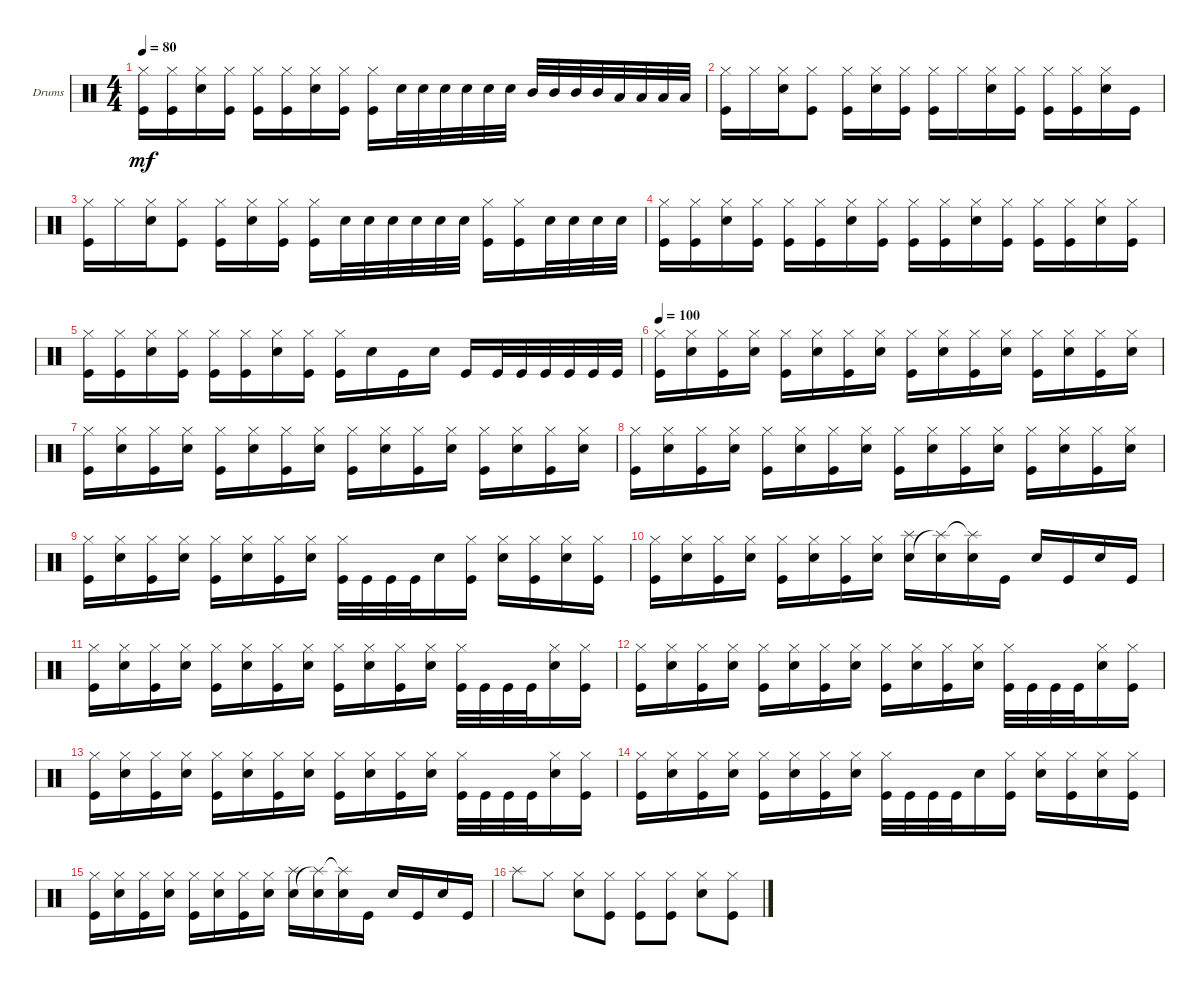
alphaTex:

\defaultSystemsLayout 4
\bracketExtendMode groupsimilarinstruments
\firstSystemTrackNameOrientation horizontal
\otherSystemsTrackNameOrientation horizontal
\track ("Drumkit" "Drums") {instrument percussion}
\staff {score}
\articulation defaults
\ts (4 4)
\tempo 80
\clef neutral
\ks c
("Kick (hit)" "Hi-Hat (closed)").16{dy mf} ("Kick (hit)" "Hi-Hat (closed)").16 ("Snare (hit) 2" "Hi-Hat (closed)").16 ("Kick (hit)" "Hi-Hat (closed)").16 ("Kick (hit)" "Hi-Hat (closed)").16 ("Kick (hit)" "Hi-Hat (closed)").16 ("Snare (hit) 2" "Hi-Hat (closed)").16 ("Kick (hit)" "Hi-Hat (closed)").16 ("Kick (hit)" "Hi-Hat (closed)").16 "Snare (hit) 2".32 "Snare (hit) 2".32 "Snare (hit) 2".32 "Snare (hit) 2".32 "Snare (hit) 2".32 "Snare (hit) 2".32 "Mid Tom (hit)".32 "Mid Tom (hit)".32 "Mid Tom (hit)".32 "Mid Tom (hit)".32 "Low Tom (hit)".32 "Low Tom (hit)".32 "Low Tom (hit)".32 "Low Tom (hit)".32 |
("Hi-Hat (closed)" "Kick (hit)").16 "Hi-Hat (closed)".16 ("Snare (hit) 2" "Hi-Hat (closed)").16 ("Kick (hit)" "Hi-Hat (closed)").8 ("Kick (hit)" "Hi-Hat (closed)").16 ("Snare (hit) 2" "Hi-Hat (closed)").16 ("Kick (hit)" "Hi-Hat (closed)").16 ("Hi-Hat (closed)" "Kick (hit)").16 "Hi-Hat (closed)".16 ("Snare (hit) 2" "Hi-Hat (closed)").16 ("Kick (hit)" "Hi-Hat (closed)").16 ("Kick (hit)" "Hi-Hat (closed)").16 ("Hi-Hat (closed)" "Kick (hit)").16 ("Hi-Hat (closed)" "Snare (hit) 2").16 "Kick (hit)".16 |
("Hi-Hat (closed)" "Kick (hit)").16 "Hi-Hat (closed)".16 ("Snare (hit) 2" "Hi-Hat (closed)").16 ("Kick (hit)" "Hi-Hat (closed)").8 ("Kick (hit)" "Hi-Hat (closed)").16 ("Snare (hit) 2" "Hi-Hat (closed)").16 ("Kick (hit)" "Hi-Hat (closed)").16 ("Hi-Hat (closed)" "Kick (hit)").16 "Snare (hit) 2".32 "Snare (hit) 2".32 "Snare (hit) 2".32 "Snare (hit) 2".32 "Snare (hit) 2".32 "Snare (hit) 2".32 ("Kick (hit)" "Hi-Hat (closed)").16 ("Kick (hit)" "Hi-Hat (closed)").16 "Snare (hit) 2".32 "Snare (hit) 2".32 "Snare (hit) 2".32 "Snare (hit) 2".32 |
("Kick (hit)" "Hi-Hat (closed)").16 ("Kick (hit)" "Hi-Hat (closed)").16 ("Snare (hit) 2" "Hi-Hat (closed)").16 ("Kick (hit)" "Hi-Hat (closed)").16 ("Kick (hit)" "Hi-Hat (closed)").16 ("Kick (hit)" "Hi-Hat (closed)").16 ("Snare (hit) 2" "Hi-Hat (closed)").16 ("Kick (hit)" "Hi-Hat (closed)").16 ("Kick (hit)" "Hi-Hat (closed)").16 ("Kick (hit)" "Hi-Hat (closed)").16 ("Snare (hit) 2" "Hi-Hat (closed)").16 ("Kick (hit)" "Hi-Hat (closed)").16 ("Kick (hit)" "Hi-Hat (closed)").16 ("Kick (hit)" "Hi-Hat (closed)").16 ("Snare (hit) 2" "Hi-Hat (closed)").16 ("Kick (hit)" "Hi-Hat (closed)").16 |
("Kick (hit)" "Hi-Hat (closed)").16 ("Kick (hit)" "Hi-Hat (closed)").16 ("Snare (hit) 2" "Hi-Hat (closed)").16 ("Kick (hit)" "Hi-Hat (closed)").16 ("Kick (hit)" "Hi-Hat (closed)").16 ("Kick (hit)" "Hi-Hat (closed)").16 ("Snare (hit) 2" "Hi-Hat (closed)").16 ("Kick (hit)" "Hi-Hat (closed)").16 ("Kick (hit)" "Hi-Hat (closed)").16 "Snare (hit) 2".16 "Kick (hit)".16 "Snare (hit) 2".16 "Kick (hit)".16 "Kick (hit)".32 "Kick (hit)".32 "Kick (hit)".32 "Kick (hit)".32 "Kick (hit)".32 "Kick (hit)".32 |
\tempo 100
("Kick (hit)" "Hi-Hat (closed)").16 ("Snare (hit) 2" "Hi-Hat (closed)").16 ("Kick (hit)" "Hi-Hat (closed)").16 ("Snare (hit) 2" "Hi-Hat (closed)").16 ("Kick (hit)" "Hi-Hat (closed)").16 ("Snare (hit) 2" "Hi-Hat (closed)").16 ("Kick (hit)" "Hi-Hat (closed)").16 ("Snare (hit) 2" "Hi-Hat (closed)").16 ("Kick (hit)" "Hi-Hat (closed)").16 ("Snare (hit) 2" "Hi-Hat (closed)").16 ("Kick (hit)" "Hi-Hat (closed)").16 ("Snare (hit) 2" "Hi-Hat (closed)").16 ("Kick (hit)" "Hi-Hat (closed)").16 ("Snare (hit) 2" "Hi-Hat (closed)").16 ("Kick (hit)" "Hi-Hat (closed)").16 ("Snare (hit) 2" "Hi-Hat (closed)").16 |
("Kick (hit)" "Hi-Hat (closed)").16 ("Snare (hit) 2" "Hi-Hat (closed)").16 ("Kick (hit)" "Hi-Hat (closed)").16 ("Snare (hit) 2" "Hi-Hat (closed)").16 ("Kick (hit)" "Hi-Hat (closed)").16 ("Snare (hit) 2" "Hi-Hat (closed)").16 ("Kick (hit)" "Hi-Hat (closed)").16 ("Snare (hit) 2" "Hi-Hat (closed)").16 ("Kick (hit)" "Hi-Hat (closed)").16 ("Snare (hit) 2" "Hi-Hat (closed)").16 ("Kick (hit)" "Hi-Hat (closed)").16 ("Snare (hit) 2" "Hi-Hat (closed)").16 ("Kick (hit)" "Hi-Hat (closed)").16 ("Snare (hit) 2" "Hi-Hat (closed)").16 ("Kick (hit)" "Hi-Hat (closed)").16 ("Snare (hit) 2" "Hi-Hat (closed)").16 |
("Kick (hit)" "Hi-Hat (closed)").16 ("Snare (hit) 2" "Hi-Hat (closed)").16 ("Kick (hit)" "Hi-Hat (closed)").16 ("Snare (hit) 2" "Hi-Hat (closed)").16 ("Kick (hit)" "Hi-Hat (closed)").16 ("Snare (hit) 2" "Hi-Hat (closed)").16 ("Kick (hit)" "Hi-Hat (closed)").16 ("Snare (hit) 2" "Hi-Hat (closed)").16 ("Kick (hit)" "Hi-Hat (closed)").16 ("Snare (hit) 2" "Hi-Hat (closed)").16 ("Kick (hit)" "Hi-Hat (closed)").16 ("Snare (hit) 2" "Hi-Hat (closed)").16 ("Kick (hit)" "Hi-Hat (closed)").16 ("Snare (hit) 2" "Hi-Hat (closed)").16 ("Kick (hit)" "Hi-Hat (closed)").16 ("Snare (hit) 2" "Hi-Hat (closed)").16 |
("Kick (hit)" "Hi-Hat (closed)").16 ("Snare (hit) 2" "Hi-Hat (closed)").16 ("Kick (hit)" "Hi-Hat (closed)").16 ("Snare (hit) 2" "Hi-Hat (closed)").16 ("Kick (hit)" "Hi-Hat (closed)").16 ("Snare (hit) 2" "Hi-Hat (closed)").16 ("Kick (hit)" "Hi-Hat (closed)").16 ("Snare (hit) 2" "Hi-Hat (closed)").16 ("Kick (hit)" "Hi-Hat (closed)").32 "Kick (hit)".32 "Kick (hit)".32 "Kick (hit)".32 "Snare (hit) 2".16 ("Kick (hit)" "Hi-Hat (closed)").16 ("Snare (hit) 2" "Hi-Hat (closed)").16 ("Kick (hit)" "Hi-Hat (closed)").16 ("Snare (hit) 2" "Hi-Hat (closed)").16 ("Kick (hit)" "Hi-Hat (closed)").16 |
("Kick (hit)" "Hi-Hat (closed)").16 ("Snare (hit) 2" "Hi-Hat (closed)").16 ("Kick (hit)" "Hi-Hat (closed)").16 ("Snare (hit) 2" "Hi-Hat (closed)").16 ("Kick (hit)" "Hi-Hat (closed)").16 ("Snare (hit) 2" "Hi-Hat (closed)").16 ("Kick (hit)" "Hi-Hat (closed)").16 ("Snare (hit) 2" "Hi-Hat (closed)").16 ("Splash (hit)" "Snare (hit) 2").16 ("Snare (hit) 2" "Splash (hit)"{t}).16 ("Snare (hit) 2" "Splash (hit)"{t}).16 "Kick (hit)".16 "Snare (hit) 2".16 "Kick (hit)".16 "Snare (hit) 2".16 "Kick (hit)".16 |
("Kick (hit)" "Hi-Hat (closed)").16 ("Snare (hit) 2" "Hi-Hat (closed)").16 ("Kick (hit)" "Hi-Hat (closed)").16 ("Snare (hit) 2" "Hi-Hat (closed)").16 ("Kick (hit)" "Hi-Hat (closed)").16 ("Snare (hit) 2" "Hi-Hat (closed)").16 ("Kick (hit)" "Hi-Hat (closed)").16 ("Snare (hit) 2" "Hi-Hat (closed)").16 ("Kick (hit)" "Hi-Hat (closed)").16 ("Snare (hit) 2" "Hi-Hat (closed)").16 ("Kick (hit)" "Hi-Hat (closed)").16 ("Snare (hit) 2" "Hi-Hat (closed)").16 ("Kick (hit)" "Hi-Hat (closed)").32 "Kick (hit)".32 "Kick (hit)".32 "Kick (hit)".32 ("Hi-Hat (closed)" "Snare (hit) 2").16 ("Hi-Hat (closed)" "Kick (hit)").16 |
("Kick (hit)" "Hi-Hat (closed)").16 ("Snare (hit) 2" "Hi-Hat (closed)").16 ("Kick (hit)" "Hi-Hat (closed)").16 ("Snare (hit) 2" "Hi-Hat (closed)").16 ("Kick (hit)" "Hi-Hat (closed)").16 ("Snare (hit) 2" "Hi-Hat (closed)").16 ("Kick (hit)" "Hi-Hat (closed)").16 ("Snare (hit) 2" "Hi-Hat (closed)").16 ("Kick (hit)" "Hi-Hat (closed)").16 ("Snare (hit) 2" "Hi-Hat (closed)").16 ("Kick (hit)" "Hi-Hat (closed)").16 ("Snare (hit) 2" "Hi-Hat (closed)").16 ("Kick (hit)" "Hi-Hat (closed)").32 "Kick (hit)".32 "Kick (hit)".32 "Kick (hit)".32 ("Hi-Hat (closed)" "Snare (hit) 2").16 ("Hi-Hat (closed)" "Kick (hit)").16 |
("Kick (hit)" "Hi-Hat (closed)").16 ("Snare (hit) 2" "Hi-Hat (closed)").16 ("Kick (hit)" "Hi-Hat (closed)").16 ("Snare (hit) 2" "Hi-Hat (closed)").16 ("Kick (hit)" "Hi-Hat (closed)").16 ("Snare (hit) 2" "Hi-Hat (closed)").16 ("Kick (hit)" "Hi-Hat (closed)").16 ("Snare (hit) 2" "Hi-Hat (closed)").16 ("Kick (hit)" "Hi-Hat (closed)").16 ("Snare (hit) 2" "Hi-Hat (closed)").16 ("Kick (hit)" "Hi-Hat (closed)").16 ("Snare (hit) 2" "Hi-Hat (closed)").16 ("Kick (hit)" "Hi-Hat (closed)").32 "Kick (hit)".32 "Kick (hit)".32 "Kick (hit)".32 ("Hi-Hat (closed)" "Snare (hit) 2").16 ("Hi-Hat (closed)" "Kick (hit)").16 |
("Kick (hit)" "Hi-Hat (closed)").16 ("Snare (hit) 2" "Hi-Hat (closed)").16 ("Kick (hit)" "Hi-Hat (closed)").16 ("Snare (hit) 2" "Hi-Hat (closed)").16 ("Kick (hit)" "Hi-Hat (closed)").16 ("Snare (hit) 2" "Hi-Hat (closed)").16 ("Kick (hit)" "Hi-Hat (closed)").16 ("Snare (hit) 2" "Hi-Hat (closed)").16 ("Kick (hit)" "Hi-Hat (closed)").32 "Kick (hit)".32 "Kick (hit)".32 "Kick (hit)".32 "Snare (hit) 2".16 ("Kick (hit)" "Hi-Hat (closed)").16 ("Snare (hit) 2" "Hi-Hat (closed)").16 ("Kick (hit)" "Hi-Hat (closed)").16 ("Snare (hit) 2" "Hi-Hat (closed)").16 ("Kick (hit)" "Hi-Hat (closed)").16 |
("Kick (hit)" "Hi-Hat (closed)").16 ("Snare (hit) 2" "Hi-Hat (closed)").16 ("Kick (hit)" "Hi-Hat (closed)").16 ("Snare (hit) 2" "Hi-Hat (closed)").16 ("Kick (hit)" "Hi-Hat (closed)").16 ("Snare (hit) 2" "Hi-Hat (closed)").16 ("Kick (hit)" "Hi-Hat (closed)").16 ("Snare (hit) 2" "Hi-Hat (closed)").16 ("Splash (hit)" "Snare (hit) 2").16 ("Snare (hit) 2" "Splash (hit)"{t}).16 ("Snare (hit) 2" "Splash (hit)"{t}).16 "Kick (hit)".16 "Snare (hit) 2".16 "Kick (hit)".16 "Snare (hit) 2".16 "Kick (hit)".16 |
"Splash (hit)".8 "Hi-Hat (closed)".8 ("Snare (hit) 2" "Hi-Hat (closed)").8 ("Kick (hit)" "Hi-Hat (closed)").8 ("Kick (hit)" "Hi-Hat (closed)").8 ("Kick (hit)" "Hi-Hat (closed)").8 ("Snare (hit) 2" "Hi-Hat (closed)").8 ("Kick (hit)" "Hi-Hat (closed)").8
